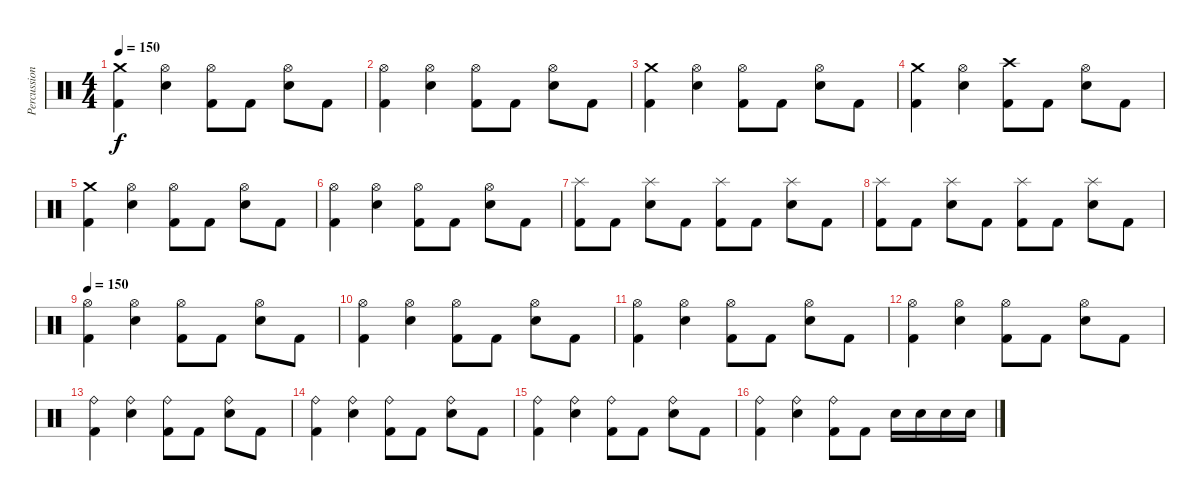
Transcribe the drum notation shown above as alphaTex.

\track ("Percussions" "Percussion") {instrument percussion}
\staff {score}
\articulation defaults
\ts (4 4)
\tempo 150
\clef neutral
\ks c
("Kick (hit) 2" "Crash medium (hit)").4{dy f} ("Snare (hit) 2" "Hi-Hat (open)").4 ("Kick (hit) 2" "Hi-Hat (open)").8 "Kick (hit) 2".8 ("Snare (hit) 2" "Hi-Hat (open)").8 "Kick (hit) 2".8 |
("Kick (hit) 2" "Hi-Hat (open)").4 ("Snare (hit) 2" "Hi-Hat (open)").4 ("Kick (hit) 2" "Hi-Hat (open)").8 "Kick (hit) 2".8 ("Snare (hit) 2" "Hi-Hat (open)").8 "Kick (hit) 2".8 |
("Kick (hit) 2" "Crash medium (hit)").4 ("Snare (hit) 2" "Hi-Hat (open)").4 ("Kick (hit) 2" "Hi-Hat (open)").8 "Kick (hit) 2".8 ("Snare (hit) 2" "Hi-Hat (open)").8 "Kick (hit) 2".8 |
("Kick (hit) 2" "Crash medium (hit)").4 ("Snare (hit) 2" "Hi-Hat (open)").4 ("Kick (hit) 2" "Crash high (hit)").8 "Kick (hit) 2".8 ("Snare (hit) 2" "Hi-Hat (open)").8 "Kick (hit) 2".8 |
("Kick (hit) 2" "Crash medium (hit)").4 ("Snare (hit) 2" "Hi-Hat (open)").4 ("Kick (hit) 2" "Hi-Hat (open)").8 "Kick (hit) 2".8 ("Snare (hit) 2" "Hi-Hat (open)").8 "Kick (hit) 2".8 |
("Kick (hit) 2" "Hi-Hat (open)").4 ("Snare (hit) 2" "Hi-Hat (open)").4 ("Kick (hit) 2" "Hi-Hat (open)").8 "Kick (hit) 2".8 ("Snare (hit) 2" "Hi-Hat (open)").8 "Kick (hit) 2".8 |
("Kick (hit) 2" "Splash (hit)").8 "Kick (hit) 2".8 ("Snare (hit) 2" "Splash (hit)").8 "Kick (hit) 2".8 ("Kick (hit) 2" "Splash (hit)").8 "Kick (hit) 2".8 ("Snare (hit) 2" "Splash (hit)").8 "Kick (hit) 2".8 |
("Kick (hit) 2" "Splash (hit)").8 "Kick (hit) 2".8 ("Snare (hit) 2" "Splash (hit)").8 "Kick (hit) 2".8 ("Kick (hit) 2" "Splash (hit)").8 "Kick (hit) 2".8 ("Snare (hit) 2" "Splash (hit)").8 "Kick (hit) 2".8 |
\tempo 150
("Kick (hit) 2" "Hi-Hat (open)").4 ("Snare (hit) 2" "Hi-Hat (open)").4 ("Kick (hit) 2" "Hi-Hat (open)").8 "Kick (hit) 2".8 ("Snare (hit) 2" "Hi-Hat (open)").8 "Kick (hit) 2".8 |
("Kick (hit) 2" "Hi-Hat (open)").4 ("Snare (hit) 2" "Hi-Hat (open)").4 ("Kick (hit) 2" "Hi-Hat (open)").8 "Kick (hit) 2".8 ("Snare (hit) 2" "Hi-Hat (open)").8 "Kick (hit) 2".8 |
("Kick (hit) 2" "Hi-Hat (open)").4 ("Snare (hit) 2" "Hi-Hat (open)").4 ("Kick (hit) 2" "Hi-Hat (open)").8 "Kick (hit) 2".8 ("Snare (hit) 2" "Hi-Hat (open)").8 "Kick (hit) 2".8 |
("Kick (hit) 2" "Hi-Hat (open)").4 ("Snare (hit) 2" "Hi-Hat (open)").4 ("Kick (hit) 2" "Hi-Hat (open)").8 "Kick (hit) 2".8 ("Snare (hit) 2" "Hi-Hat (open)").8 "Kick (hit) 2".8 |
("Kick (hit) 2" "Ride (bell)").4 ("Snare (hit) 2" "Ride (bell)").4 ("Kick (hit) 2" "Ride (bell)").8 "Kick (hit) 2".8 ("Snare (hit) 2" "Ride (bell)").8 "Kick (hit) 2".8 |
("Kick (hit) 2" "Ride (bell)").4 ("Snare (hit) 2" "Ride (bell)").4 ("Kick (hit) 2" "Ride (bell)").8 "Kick (hit) 2".8 ("Snare (hit) 2" "Ride (bell)").8 "Kick (hit) 2".8 |
("Kick (hit) 2" "Ride (bell)").4 ("Snare (hit) 2" "Ride (bell)").4 ("Kick (hit) 2" "Ride (bell)").8 "Kick (hit) 2".8 ("Snare (hit) 2" "Ride (bell)").8 "Kick (hit) 2".8 |
("Kick (hit) 2" "Ride (bell)").4 ("Snare (hit) 2" "Ride (bell)").4 ("Kick (hit) 2" "Ride (bell)").8 "Kick (hit) 2".8 "Snare (hit) 2".16 "Snare (hit) 2".16 "Snare (hit) 2".16 "Snare (hit) 2".16
